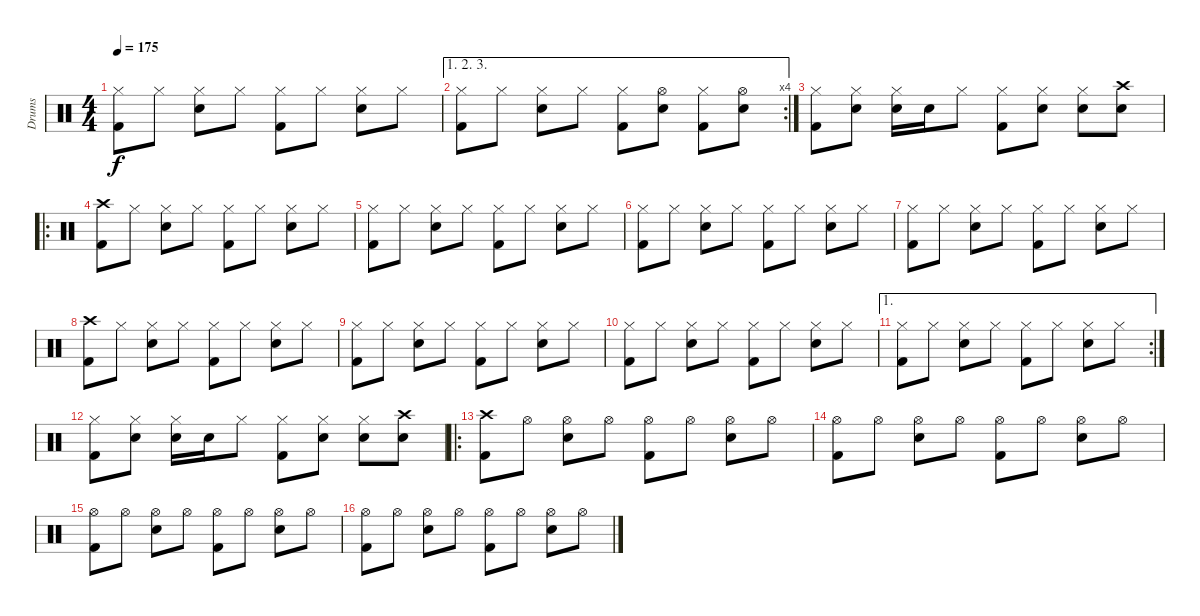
\track ("Drums" "Drums") {instrument percussion}
\staff {score}
\articulation defaults
\ts (4 4)
\tempo 175
\clef neutral
\ks c
("Hi-Hat (closed)" "Kick (hit) 2").8{dy f} "Hi-Hat (closed)".8 ("Hi-Hat (closed)" "Snare (hit) 2").8 "Hi-Hat (closed)".8 ("Hi-Hat (closed)" "Kick (hit) 2").8 "Hi-Hat (closed)".8 ("Hi-Hat (closed)" "Snare (hit) 2").8 "Hi-Hat (closed)".8 |
\ae (1 2 3)
\rc 4
("Hi-Hat (closed)" "Kick (hit) 2").8 "Hi-Hat (closed)".8 ("Hi-Hat (closed)" "Snare (hit) 2").8 "Hi-Hat (closed)".8 ("Hi-Hat (closed)" "Kick (hit) 2").8 ("Hi-Hat (open)" "Snare (hit) 2").8 ("Hi-Hat (closed)" "Kick (hit) 2").8 ("Hi-Hat (open)" "Snare (hit) 2").8 |
("Hi-Hat (closed)" "Kick (hit) 2").8 ("Hi-Hat (closed)" "Snare (hit) 2").8 ("Hi-Hat (closed)" "Snare (hit) 2").16 "Snare (hit) 2".16 "Hi-Hat (closed)".8 ("Hi-Hat (closed)" "Kick (hit) 2").8 ("Hi-Hat (closed)" "Snare (hit) 2").8 ("Hi-Hat (closed)" "Snare (hit) 2").8 ("Crash high (hit)" "Snare (hit) 2").8 |
\ro
("Crash high (hit)" "Kick (hit) 2").8 "Hi-Hat (closed)".8 ("Hi-Hat (closed)" "Snare (hit) 2").8 "Hi-Hat (closed)".8 ("Hi-Hat (closed)" "Kick (hit) 2").8 "Hi-Hat (closed)".8 ("Hi-Hat (closed)" "Snare (hit) 2").8 "Hi-Hat (closed)".8 |
("Hi-Hat (closed)" "Kick (hit) 2").8 "Hi-Hat (closed)".8 ("Hi-Hat (closed)" "Snare (hit) 2").8 "Hi-Hat (closed)".8 ("Hi-Hat (closed)" "Kick (hit) 2").8 "Hi-Hat (closed)".8 ("Hi-Hat (closed)" "Snare (hit) 2").8 "Hi-Hat (closed)".8 |
("Hi-Hat (closed)" "Kick (hit) 2").8 "Hi-Hat (closed)".8 ("Hi-Hat (closed)" "Snare (hit) 2").8 "Hi-Hat (closed)".8 ("Hi-Hat (closed)" "Kick (hit) 2").8 "Hi-Hat (closed)".8 ("Hi-Hat (closed)" "Snare (hit) 2").8 "Hi-Hat (closed)".8 |
("Hi-Hat (closed)" "Kick (hit) 2").8 "Hi-Hat (closed)".8 ("Hi-Hat (closed)" "Snare (hit) 2").8 "Hi-Hat (closed)".8 ("Hi-Hat (closed)" "Kick (hit) 2").8 "Hi-Hat (closed)".8 ("Hi-Hat (closed)" "Snare (hit) 2").8 "Hi-Hat (closed)".8 |
("Crash high (hit)" "Kick (hit) 2").8 "Hi-Hat (closed)".8 ("Hi-Hat (closed)" "Snare (hit) 2").8 "Hi-Hat (closed)".8 ("Hi-Hat (closed)" "Kick (hit) 2").8 "Hi-Hat (closed)".8 ("Hi-Hat (closed)" "Snare (hit) 2").8 "Hi-Hat (closed)".8 |
("Hi-Hat (closed)" "Kick (hit) 2").8 "Hi-Hat (closed)".8 ("Hi-Hat (closed)" "Snare (hit) 2").8 "Hi-Hat (closed)".8 ("Hi-Hat (closed)" "Kick (hit) 2").8 "Hi-Hat (closed)".8 ("Hi-Hat (closed)" "Snare (hit) 2").8 "Hi-Hat (closed)".8 |
("Hi-Hat (closed)" "Kick (hit) 2").8 "Hi-Hat (closed)".8 ("Hi-Hat (closed)" "Snare (hit) 2").8 "Hi-Hat (closed)".8 ("Hi-Hat (closed)" "Kick (hit) 2").8 "Hi-Hat (closed)".8 ("Hi-Hat (closed)" "Snare (hit) 2").8 "Hi-Hat (closed)".8 |
\ae 1
\rc 2
("Hi-Hat (closed)" "Kick (hit) 2").8 "Hi-Hat (closed)".8 ("Hi-Hat (closed)" "Snare (hit) 2").8 "Hi-Hat (closed)".8 ("Hi-Hat (closed)" "Kick (hit) 2").8 "Hi-Hat (closed)".8 ("Hi-Hat (closed)" "Snare (hit) 2").8 "Hi-Hat (closed)".8 |
("Hi-Hat (closed)" "Kick (hit) 2").8 ("Hi-Hat (closed)" "Snare (hit) 2").8 ("Hi-Hat (closed)" "Snare (hit) 2").16 "Snare (hit) 2".16 "Hi-Hat (closed)".8 ("Hi-Hat (closed)" "Kick (hit) 2").8 ("Hi-Hat (closed)" "Snare (hit) 2").8 ("Hi-Hat (closed)" "Snare (hit) 2").8 ("Crash high (hit)" "Snare (hit) 2").8 |
\ro
("Crash high (hit)" "Kick (hit) 2").8 "Hi-Hat (open)".8 ("Hi-Hat (open)" "Snare (hit) 2").8 "Hi-Hat (open)".8 ("Hi-Hat (open)" "Kick (hit) 2").8 "Hi-Hat (open)".8 ("Hi-Hat (open)" "Snare (hit) 2").8 "Hi-Hat (open)".8 |
("Hi-Hat (open)" "Kick (hit) 2").8 "Hi-Hat (open)".8 ("Hi-Hat (open)" "Snare (hit) 2").8 "Hi-Hat (open)".8 ("Hi-Hat (open)" "Kick (hit) 2").8 "Hi-Hat (open)".8 ("Hi-Hat (open)" "Snare (hit) 2").8 "Hi-Hat (open)".8 |
("Hi-Hat (open)" "Kick (hit) 2").8 "Hi-Hat (open)".8 ("Hi-Hat (open)" "Snare (hit) 2").8 "Hi-Hat (open)".8 ("Hi-Hat (open)" "Kick (hit) 2").8 "Hi-Hat (open)".8 ("Hi-Hat (open)" "Snare (hit) 2").8 "Hi-Hat (open)".8 |
("Hi-Hat (open)" "Kick (hit) 2").8 "Hi-Hat (open)".8 ("Hi-Hat (open)" "Snare (hit) 2").8 "Hi-Hat (open)".8 ("Hi-Hat (open)" "Kick (hit) 2").8 "Hi-Hat (open)".8 ("Hi-Hat (open)" "Snare (hit) 2").8 "Hi-Hat (open)".8
